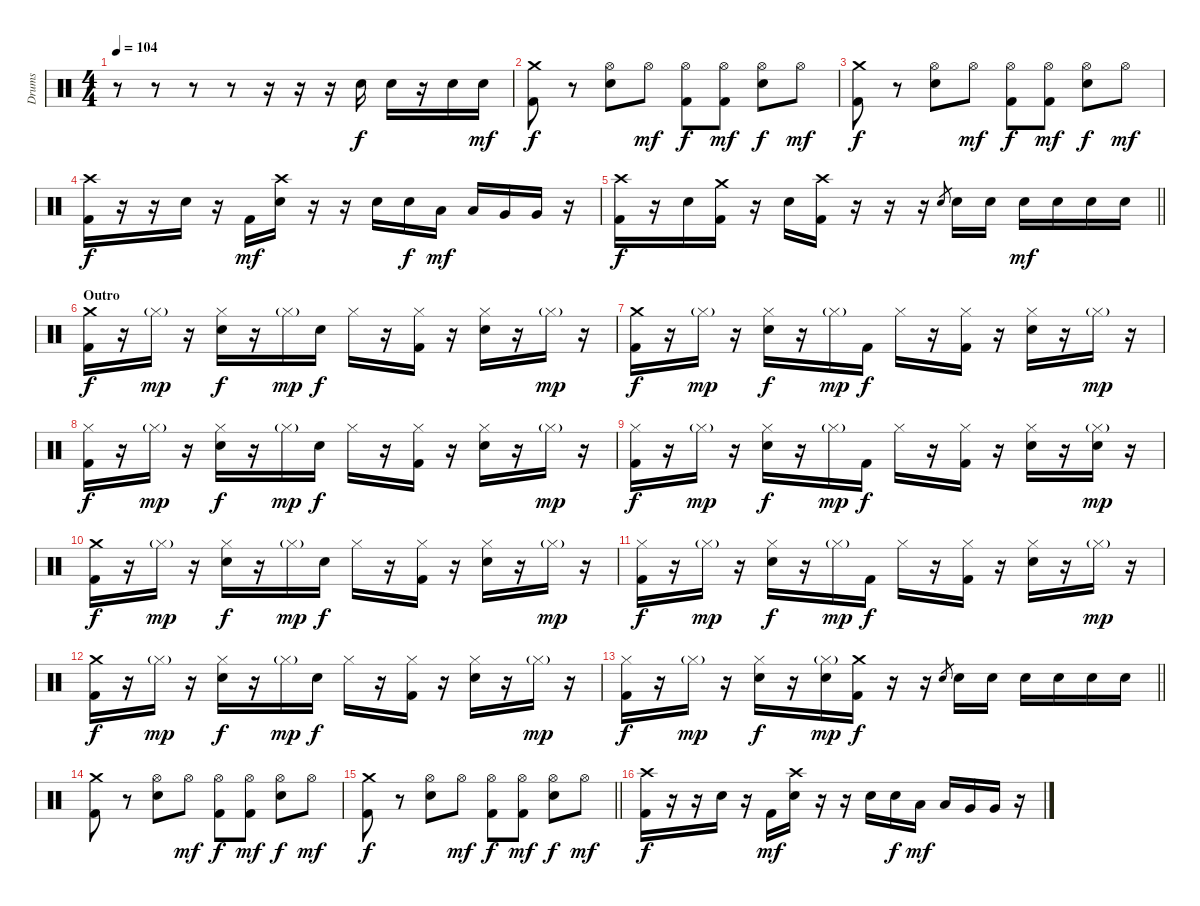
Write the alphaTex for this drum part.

\track ("Drums" "Drums") {instrument percussion}
\staff {score}
\articulation defaults
\ts (4 4)
\tempo 104
\clef neutral
\ks c
r.8{dy f} r.8 r.8 r.8 r.16 r.16 r.16 "Snare (hit) 2".16 "Snare (hit) 2".16 r.16 "Snare (hit) 2".16 "Snare (hit) 2".16{dy mf} |
("Crash medium (hit)" "Kick (hit) 2").8{dy f} r.8 ("Hi-Hat (open)" "Snare (hit) 2").8 "Hi-Hat (open)".8{dy mf} ("Hi-Hat (open)" "Kick (hit) 2").8{dy f} ("Hi-Hat (open)" "Kick (hit) 2").8{dy mf} ("Hi-Hat (open)" "Snare (hit) 2").8{dy f} "Hi-Hat (open)".8{dy mf} |
("Crash medium (hit)" "Kick (hit) 2").8{dy f} r.8 ("Hi-Hat (open)" "Snare (hit) 2").8 "Hi-Hat (open)".8{dy mf} ("Hi-Hat (open)" "Kick (hit) 2").8{dy f} ("Hi-Hat (open)" "Kick (hit) 2").8{dy mf} ("Hi-Hat (open)" "Snare (hit) 2").8{dy f} "Hi-Hat (open)".8{dy mf} |
("Crash high (hit)" "Kick (hit) 2").16{dy f} r.16 r.16 "Snare (hit) 2".16 r.16 "Kick (hit) 2".16{dy mf} ("Crash high (hit)" "Snare (hit) 2").16 r.16 r.16 "Snare (hit) 2".16 "Snare (hit) 2".16{dy f} "Low Tom (hit)".16{dy mf} "Low Tom (hit)".16 "Very Low Tom (hit)".16 "Very Low Tom (hit)".16 r.16 |
\barLineRight lightlight
("Crash high (hit)" "Kick (hit) 2").16{dy f} r.16 "Snare (hit) 2".16 ("Crash medium (hit)" "Kick (hit) 2").16 r.16 "Snare (hit) 2".16 ("Crash high (hit)" "Kick (hit) 2").16 r.16 r.16 r.16 "Snare (hit) 2".8{gr} "Snare (hit) 2".16 "Snare (hit) 2".16 "Snare (hit) 2".16{dy mf} "Snare (hit) 2".16 "Snare (hit) 2".16 "Snare (hit) 2".16 |
\section ("" "Outro")
("Crash medium (hit)" "Kick (hit) 2").16{dy f} r.16 "Hi-Hat (closed)"{g}.16{dy mp} r.16 ("Hi-Hat (closed)" "Snare (hit) 2").16{dy f} r.16 "Hi-Hat (closed)"{g}.16{dy mp} "Snare (hit) 2".16{dy f} "Hi-Hat (closed)".16 r.16 ("Hi-Hat (closed)" "Kick (hit) 2").16 r.16 ("Hi-Hat (closed)" "Snare (hit) 2").16 r.16 "Hi-Hat (closed)"{g}.16{dy mp} r.16 |
("Crash medium (hit)" "Kick (hit) 2").16{dy f} r.16 "Hi-Hat (closed)"{g}.16{dy mp} r.16 ("Hi-Hat (closed)" "Snare (hit) 2").16{dy f} r.16 "Hi-Hat (closed)"{g}.16{dy mp} "Kick (hit) 2".16{dy f} "Hi-Hat (closed)".16 r.16 ("Hi-Hat (closed)" "Kick (hit) 2").16 r.16 ("Hi-Hat (closed)" "Snare (hit) 2").16 r.16 "Hi-Hat (closed)"{g}.16{dy mp} r.16 |
("Hi-Hat (closed)" "Kick (hit) 2").16{dy f} r.16 "Hi-Hat (closed)"{g}.16{dy mp} r.16 ("Hi-Hat (closed)" "Snare (hit) 2").16{dy f} r.16 "Hi-Hat (closed)"{g}.16{dy mp} "Snare (hit) 2".16{dy f} "Hi-Hat (closed)".16 r.16 ("Hi-Hat (closed)" "Kick (hit) 2").16 r.16 ("Hi-Hat (closed)" "Snare (hit) 2").16 r.16 "Hi-Hat (closed)"{g}.16{dy mp} r.16 |
("Hi-Hat (closed)" "Kick (hit) 2").16{dy f} r.16 "Hi-Hat (closed)"{g}.16{dy mp} r.16 ("Hi-Hat (closed)" "Snare (hit) 2").16{dy f} r.16 "Hi-Hat (closed)"{g}.16{dy mp} "Kick (hit) 2".16{dy f} "Hi-Hat (closed)".16 r.16 ("Hi-Hat (closed)" "Kick (hit) 2").16 r.16 ("Hi-Hat (closed)" "Snare (hit) 2").16 r.16 ("Hi-Hat (closed)"{g} "Snare (hit) 2").16{dy mp} r.16 |
("Crash medium (hit)" "Kick (hit) 2").16{dy f} r.16 "Hi-Hat (closed)"{g}.16{dy mp} r.16 ("Hi-Hat (closed)" "Snare (hit) 2").16{dy f} r.16 "Hi-Hat (closed)"{g}.16{dy mp} "Snare (hit) 2".16{dy f} "Hi-Hat (closed)".16 r.16 ("Hi-Hat (closed)" "Kick (hit) 2").16 r.16 ("Hi-Hat (closed)" "Snare (hit) 2").16 r.16 "Hi-Hat (closed)"{g}.16{dy mp} r.16 |
("Hi-Hat (closed)" "Kick (hit) 2").16{dy f} r.16 "Hi-Hat (closed)"{g}.16{dy mp} r.16 ("Hi-Hat (closed)" "Snare (hit) 2").16{dy f} r.16 "Hi-Hat (closed)"{g}.16{dy mp} "Kick (hit) 2".16{dy f} "Hi-Hat (closed)".16 r.16 ("Hi-Hat (closed)" "Kick (hit) 2").16 r.16 ("Hi-Hat (closed)" "Snare (hit) 2").16 r.16 "Hi-Hat (closed)"{g}.16{dy mp} r.16 |
("Crash medium (hit)" "Kick (hit) 2").16{dy f} r.16 "Hi-Hat (closed)"{g}.16{dy mp} r.16 ("Hi-Hat (closed)" "Snare (hit) 2").16{dy f} r.16 "Hi-Hat (closed)"{g}.16{dy mp} "Snare (hit) 2".16{dy f} "Hi-Hat (closed)".16 r.16 ("Hi-Hat (closed)" "Kick (hit) 2").16 r.16 ("Hi-Hat (closed)" "Snare (hit) 2").16 r.16 "Hi-Hat (closed)"{g}.16{dy mp} r.16 |
\barLineRight lightlight
("Hi-Hat (closed)" "Kick (hit) 2").16{dy f} r.16 "Hi-Hat (closed)"{g}.16{dy mp} r.16 ("Hi-Hat (closed)" "Snare (hit) 2").16{dy f} r.16 ("Hi-Hat (closed)"{g} "Snare (hit) 2").16{dy mp} ("Crash medium (hit)" "Kick (hit) 2").16{dy f} r.16 r.16 "Snare (hit) 2".8{gr} "Snare (hit) 2".16 "Snare (hit) 2".16 "Snare (hit) 2".16 "Snare (hit) 2".16 "Snare (hit) 2".16 "Snare (hit) 2".16 |
("Crash medium (hit)" "Kick (hit) 2").8 r.8 ("Hi-Hat (open)" "Snare (hit) 2").8 "Hi-Hat (open)".8{dy mf} ("Hi-Hat (open)" "Kick (hit) 2").8{dy f} ("Hi-Hat (open)" "Kick (hit) 2").8{dy mf} ("Hi-Hat (open)" "Snare (hit) 2").8{dy f} "Hi-Hat (open)".8{dy mf} |
\barLineRight lightlight
("Crash medium (hit)" "Kick (hit) 2").8{dy f} r.8 ("Hi-Hat (open)" "Snare (hit) 2").8 "Hi-Hat (open)".8{dy mf} ("Hi-Hat (open)" "Kick (hit) 2").8{dy f} ("Hi-Hat (open)" "Kick (hit) 2").8{dy mf} ("Hi-Hat (open)" "Snare (hit) 2").8{dy f} "Hi-Hat (open)".8{dy mf} |
("Crash high (hit)" "Kick (hit) 2").16{dy f} r.16 r.16 "Snare (hit) 2".16 r.16 "Kick (hit) 2".16{dy mf} ("Crash high (hit)" "Snare (hit) 2").16 r.16 r.16 "Snare (hit) 2".16 "Snare (hit) 2".16{dy f} "Low Tom (hit)".16{dy mf} "Low Tom (hit)".16 "Very Low Tom (hit)".16 "Very Low Tom (hit)".16 r.16
